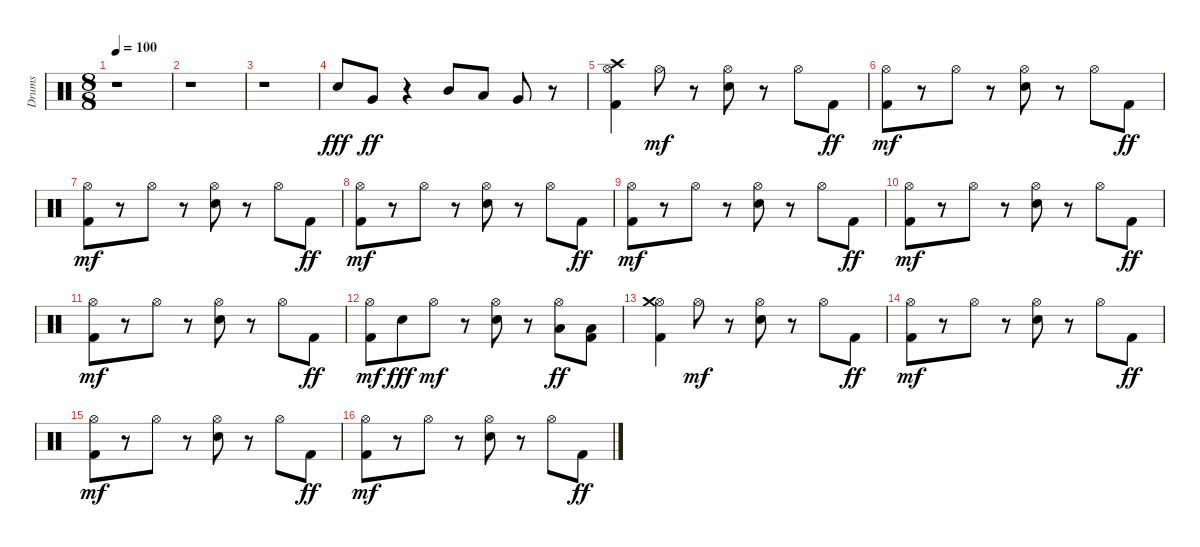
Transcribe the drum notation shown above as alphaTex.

\track ("Drums" "Drums") {instrument percussion}
\staff {score}
\articulation defaults
\ts (8 8)
\tempo 100
\clef neutral
\ks c
r.1{dy fff} |
r.1 |
r.1 |
"Snare (hit) 2".8 "Very Low Tom (hit)".8{dy ff} r.4 "Mid Tom (hit)".8 "Low Tom (hit)".8 "Very Low Tom (hit)".8 r.8 |
("Kick (hit) 2" "Hi-Hat (open)" "Crash high (hit)").4 "Hi-Hat (open)".8{dy mf} r.8 ("Snare (hit) 2" "Hi-Hat (open)").8 r.8 "Hi-Hat (open)".8 "Kick (hit) 2".8{dy ff} |
("Kick (hit) 2" "Hi-Hat (open)").8{dy mf} r.8 "Hi-Hat (open)".8 r.8 ("Snare (hit) 2" "Hi-Hat (open)").8 r.8 "Hi-Hat (open)".8 "Kick (hit) 2".8{dy ff} |
("Kick (hit) 2" "Hi-Hat (open)").8{dy mf} r.8 "Hi-Hat (open)".8 r.8 ("Snare (hit) 2" "Hi-Hat (open)").8 r.8 "Hi-Hat (open)".8 "Kick (hit) 2".8{dy ff} |
("Kick (hit) 2" "Hi-Hat (open)").8{dy mf} r.8 "Hi-Hat (open)".8 r.8 ("Snare (hit) 2" "Hi-Hat (open)").8 r.8 "Hi-Hat (open)".8 "Kick (hit) 2".8{dy ff} |
("Kick (hit) 2" "Hi-Hat (open)").8{dy mf} r.8 "Hi-Hat (open)".8 r.8 ("Snare (hit) 2" "Hi-Hat (open)").8 r.8 "Hi-Hat (open)".8 "Kick (hit) 2".8{dy ff} |
("Kick (hit) 2" "Hi-Hat (open)").8{dy mf} r.8 "Hi-Hat (open)".8 r.8 ("Snare (hit) 2" "Hi-Hat (open)").8 r.8 "Hi-Hat (open)".8 "Kick (hit) 2".8{dy ff} |
("Kick (hit) 2" "Hi-Hat (open)").8{dy mf} r.8 "Hi-Hat (open)".8 r.8 ("Snare (hit) 2" "Hi-Hat (open)").8 r.8 "Hi-Hat (open)".8 "Kick (hit) 2".8{dy ff} |
("Kick (hit) 2" "Hi-Hat (open)").8{dy mf} "Snare (hit) 2".8{dy fff} "Hi-Hat (open)".8{dy mf} r.8 ("Snare (hit) 2" "Hi-Hat (open)").8 r.8 ("Hi-Hat (open)" "Low Tom (hit)").8{dy ff} ("Kick (hit) 2" "Low Floor Tom (hit)").8 |
("Kick (hit) 2" "Hi-Hat (open)" "Crash medium (hit)").4 "Hi-Hat (open)".8{dy mf} r.8 ("Snare (hit) 2" "Hi-Hat (open)").8 r.8 "Hi-Hat (open)".8 "Kick (hit) 2".8{dy ff} |
("Kick (hit) 2" "Hi-Hat (open)").8{dy mf} r.8 "Hi-Hat (open)".8 r.8 ("Snare (hit) 2" "Hi-Hat (open)").8 r.8 "Hi-Hat (open)".8 "Kick (hit) 2".8{dy ff} |
("Kick (hit) 2" "Hi-Hat (open)").8{dy mf} r.8 "Hi-Hat (open)".8 r.8 ("Snare (hit) 2" "Hi-Hat (open)").8 r.8 "Hi-Hat (open)".8 "Kick (hit) 2".8{dy ff} |
("Kick (hit) 2" "Hi-Hat (open)").8{dy mf} r.8 "Hi-Hat (open)".8 r.8 ("Snare (hit) 2" "Hi-Hat (open)").8 r.8 "Hi-Hat (open)".8 "Kick (hit) 2".8{dy ff}
